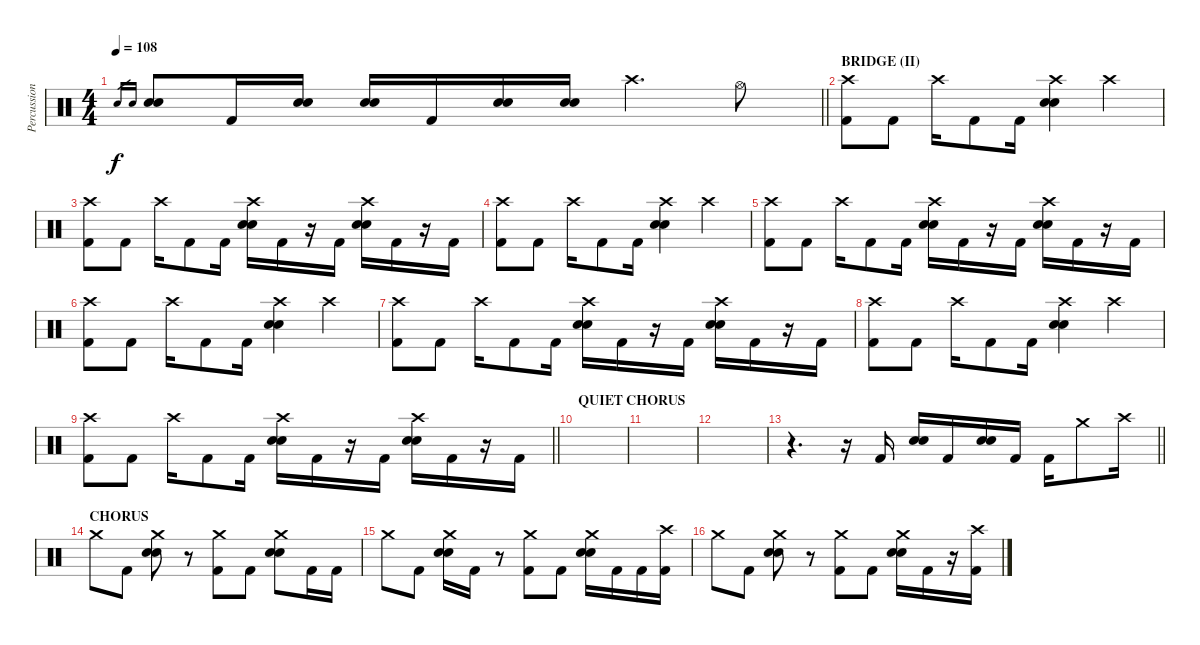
\track ("Percussion" "Percussion") {instrument percussion}
\staff {score}
\articulation defaults
\ts (4 4)
\tempo 108
\clef neutral
\barLineRight lightlight
\ks c "Snare (hit) 2".16{gr dy f} "Electric Snare (hit)".16{gr}
("Snare (hit) 2" "Electric Snare (hit)").8 "Kick (hit) 2".16 ("Snare (hit) 2" "Electric Snare (hit)").16 ("Snare (hit) 2" "Electric Snare (hit)").16 "Kick (hit) 2".16 ("Snare (hit) 2" "Electric Snare (hit)").16 ("Snare (hit) 2" "Electric Snare (hit)").16 "Crash high (hit)".4{d} "Hi-Hat (open)".8 |
\section ("" "BRIDGE (II)")
("Crash high (hit)" "Kick (hit) 2").8 "Kick (hit) 2".8 "Crash high (hit)".16 "Kick (hit) 2".8 "Kick (hit) 2".16 ("Crash high (hit)" "Snare (hit) 2" "Electric Snare (hit)").4 "Crash high (hit)".4 |
("Crash high (hit)" "Kick (hit) 2").8 "Kick (hit) 2".8 "Crash high (hit)".16 "Kick (hit) 2".8 "Kick (hit) 2".16 ("Crash high (hit)" "Snare (hit) 2" "Electric Snare (hit)").16 "Kick (hit) 2".16 r.16 "Kick (hit) 2".16 ("Crash high (hit)" "Snare (hit) 2" "Electric Snare (hit)").16 "Kick (hit) 2".16 r.16 "Kick (hit) 2".16 |
("Crash high (hit)" "Kick (hit) 2").8 "Kick (hit) 2".8 "Crash high (hit)".16 "Kick (hit) 2".8 "Kick (hit) 2".16 ("Crash high (hit)" "Snare (hit) 2" "Electric Snare (hit)").4 "Crash high (hit)".4 |
("Crash high (hit)" "Kick (hit) 2").8 "Kick (hit) 2".8 "Crash high (hit)".16 "Kick (hit) 2".8 "Kick (hit) 2".16 ("Crash high (hit)" "Snare (hit) 2" "Electric Snare (hit)").16 "Kick (hit) 2".16 r.16 "Kick (hit) 2".16 ("Crash high (hit)" "Snare (hit) 2" "Electric Snare (hit)").16 "Kick (hit) 2".16 r.16 "Kick (hit) 2".16 |
("Crash high (hit)" "Kick (hit) 2").8 "Kick (hit) 2".8 "Crash high (hit)".16 "Kick (hit) 2".8 "Kick (hit) 2".16 ("Crash high (hit)" "Snare (hit) 2" "Electric Snare (hit)").4 "Crash high (hit)".4 |
("Crash high (hit)" "Kick (hit) 2").8 "Kick (hit) 2".8 "Crash high (hit)".16 "Kick (hit) 2".8 "Kick (hit) 2".16 ("Crash high (hit)" "Snare (hit) 2" "Electric Snare (hit)").16 "Kick (hit) 2".16 r.16 "Kick (hit) 2".16 ("Crash high (hit)" "Snare (hit) 2" "Electric Snare (hit)").16 "Kick (hit) 2".16 r.16 "Kick (hit) 2".16 |
("Crash high (hit)" "Kick (hit) 2").8 "Kick (hit) 2".8 "Crash high (hit)".16 "Kick (hit) 2".8 "Kick (hit) 2".16 ("Crash high (hit)" "Snare (hit) 2" "Electric Snare (hit)").4 "Crash high (hit)".4 |
\barLineRight lightlight
("Crash high (hit)" "Kick (hit) 2").8 "Kick (hit) 2".8 "Crash high (hit)".16 "Kick (hit) 2".8 "Kick (hit) 2".16 ("Crash high (hit)" "Snare (hit) 2" "Electric Snare (hit)").16 "Kick (hit) 2".16 r.16 "Kick (hit) 2".16 ("Crash high (hit)" "Snare (hit) 2" "Electric Snare (hit)").16 "Kick (hit) 2".16 r.16 "Kick (hit) 2".16 |
\section ("" "QUIET CHORUS")
|
|
|
\barLineRight lightlight
r.4{d} r.16 "Kick (hit) 2".16 ("Snare (hit) 2" "Electric Snare (hit)").16 "Kick (hit) 2".16 ("Snare (hit) 2" "Electric Snare (hit)").16 "Kick (hit) 2".16 "Kick (hit) 2".16 "Crash medium (hit)".8 "Crash high (hit)".16 |
\section ("" "CHORUS")
"Crash medium (hit)".8 "Kick (hit) 2".8 ("Crash medium (hit)" "Snare (hit) 2" "Electric Snare (hit)").8 r.8 ("Crash medium (hit)" "Kick (hit) 2").8 "Kick (hit) 2".8 ("Crash medium (hit)" "Snare (hit) 2" "Electric Snare (hit)").8 "Kick (hit) 2".16 "Kick (hit) 2".16 |
"Crash medium (hit)".8 "Kick (hit) 2".8 ("Crash medium (hit)" "Snare (hit) 2" "Electric Snare (hit)").16 "Kick (hit) 2".16 r.8 ("Crash medium (hit)" "Kick (hit) 2").8 "Kick (hit) 2".8 ("Crash medium (hit)" "Snare (hit) 2" "Electric Snare (hit)").16 "Kick (hit) 2".16 "Kick (hit) 2".16 ("Crash high (hit)" "Kick (hit) 2").16 |
"Crash medium (hit)".8 "Kick (hit) 2".8 ("Crash medium (hit)" "Snare (hit) 2" "Electric Snare (hit)").8 r.8 ("Crash medium (hit)" "Kick (hit) 2").8 "Kick (hit) 2".8 ("Crash medium (hit)" "Snare (hit) 2" "Electric Snare (hit)").16 "Kick (hit) 2".16 r.16 ("Crash high (hit)" "Kick (hit) 2").16
